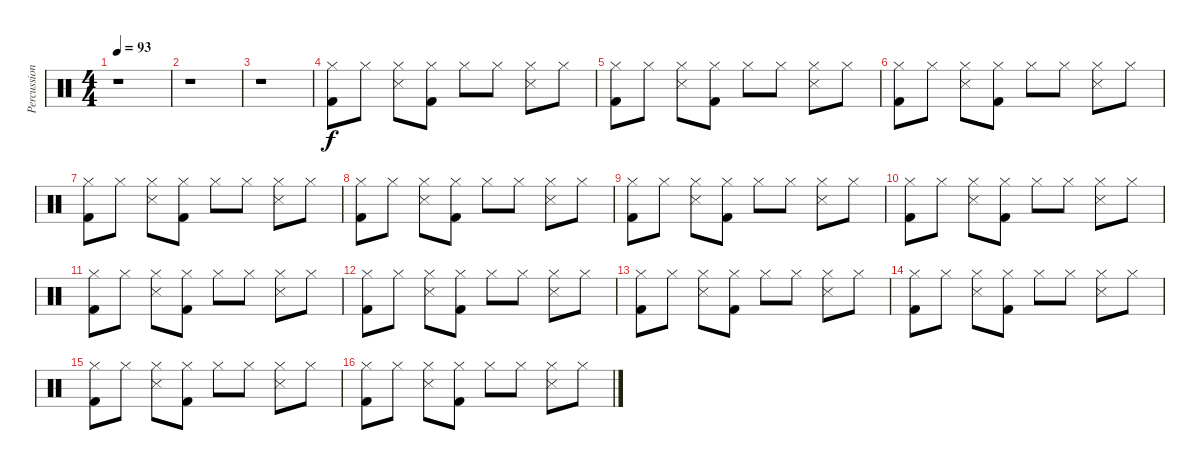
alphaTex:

\track ("Percussion" "Percussion") {instrument percussion}
\staff {score}
\articulation defaults
\ts (4 4)
\tempo 93
\clef neutral
\ks c
r.1{dy f} |
r.1 |
r.1 |
("Hi-Hat (closed)" "Kick (hit) 2").8 "Hi-Hat (closed)".8 ("Hi-Hat (closed)" "Snare (side stick) 3").8 ("Hi-Hat (closed)" "Kick (hit) 2").8 "Hi-Hat (closed)".8 "Hi-Hat (closed)".8 ("Hi-Hat (closed)" "Snare (side stick) 3").8 "Hi-Hat (closed)".8 |
("Hi-Hat (closed)" "Kick (hit) 2").8 "Hi-Hat (closed)".8 ("Hi-Hat (closed)" "Snare (side stick) 3").8 ("Hi-Hat (closed)" "Kick (hit) 2").8 "Hi-Hat (closed)".8 "Hi-Hat (closed)".8 ("Hi-Hat (closed)" "Snare (side stick) 3").8 "Hi-Hat (closed)".8 |
("Hi-Hat (closed)" "Kick (hit) 2").8 "Hi-Hat (closed)".8 ("Hi-Hat (closed)" "Snare (side stick) 3").8 ("Hi-Hat (closed)" "Kick (hit) 2").8 "Hi-Hat (closed)".8 "Hi-Hat (closed)".8 ("Hi-Hat (closed)" "Snare (side stick) 3").8 "Hi-Hat (closed)".8 |
("Hi-Hat (closed)" "Kick (hit) 2").8 "Hi-Hat (closed)".8 ("Hi-Hat (closed)" "Snare (side stick) 3").8 ("Hi-Hat (closed)" "Kick (hit) 2").8 "Hi-Hat (closed)".8 "Hi-Hat (closed)".8 ("Hi-Hat (closed)" "Snare (side stick) 3").8 "Hi-Hat (closed)".8 |
("Hi-Hat (closed)" "Kick (hit) 2").8 "Hi-Hat (closed)".8 ("Hi-Hat (closed)" "Snare (side stick) 3").8 ("Hi-Hat (closed)" "Kick (hit) 2").8 "Hi-Hat (closed)".8 "Hi-Hat (closed)".8 ("Hi-Hat (closed)" "Snare (side stick) 3").8 "Hi-Hat (closed)".8 |
("Hi-Hat (closed)" "Kick (hit) 2").8 "Hi-Hat (closed)".8 ("Hi-Hat (closed)" "Snare (side stick) 3").8 ("Hi-Hat (closed)" "Kick (hit) 2").8 "Hi-Hat (closed)".8 "Hi-Hat (closed)".8 ("Hi-Hat (closed)" "Snare (side stick) 3").8 "Hi-Hat (closed)".8 |
("Hi-Hat (closed)" "Kick (hit) 2").8 "Hi-Hat (closed)".8 ("Hi-Hat (closed)" "Snare (side stick) 3").8 ("Hi-Hat (closed)" "Kick (hit) 2").8 "Hi-Hat (closed)".8 "Hi-Hat (closed)".8 ("Hi-Hat (closed)" "Snare (side stick) 3").8 "Hi-Hat (closed)".8 |
("Hi-Hat (closed)" "Kick (hit) 2").8 "Hi-Hat (closed)".8 ("Hi-Hat (closed)" "Snare (side stick) 3").8 ("Hi-Hat (closed)" "Kick (hit) 2").8 "Hi-Hat (closed)".8 "Hi-Hat (closed)".8 ("Hi-Hat (closed)" "Snare (side stick) 3").8 "Hi-Hat (closed)".8 |
("Hi-Hat (closed)" "Kick (hit) 2").8 "Hi-Hat (closed)".8 ("Hi-Hat (closed)" "Snare (side stick) 3").8 ("Hi-Hat (closed)" "Kick (hit) 2").8 "Hi-Hat (closed)".8 "Hi-Hat (closed)".8 ("Hi-Hat (closed)" "Snare (side stick) 3").8 "Hi-Hat (closed)".8 |
("Hi-Hat (closed)" "Kick (hit) 2").8 "Hi-Hat (closed)".8 ("Hi-Hat (closed)" "Snare (side stick) 3").8 ("Hi-Hat (closed)" "Kick (hit) 2").8 "Hi-Hat (closed)".8 "Hi-Hat (closed)".8 ("Hi-Hat (closed)" "Snare (side stick) 3").8 "Hi-Hat (closed)".8 |
("Hi-Hat (closed)" "Kick (hit) 2").8 "Hi-Hat (closed)".8 ("Hi-Hat (closed)" "Snare (side stick) 3").8 ("Hi-Hat (closed)" "Kick (hit) 2").8 "Hi-Hat (closed)".8 "Hi-Hat (closed)".8 ("Hi-Hat (closed)" "Snare (side stick) 3").8 "Hi-Hat (closed)".8 |
("Hi-Hat (closed)" "Kick (hit) 2").8 "Hi-Hat (closed)".8 ("Hi-Hat (closed)" "Snare (side stick) 3").8 ("Hi-Hat (closed)" "Kick (hit) 2").8 "Hi-Hat (closed)".8 "Hi-Hat (closed)".8 ("Hi-Hat (closed)" "Snare (side stick) 3").8 "Hi-Hat (closed)".8 |
("Hi-Hat (closed)" "Kick (hit) 2").8 "Hi-Hat (closed)".8 ("Hi-Hat (closed)" "Snare (side stick) 3").8 ("Hi-Hat (closed)" "Kick (hit) 2").8 "Hi-Hat (closed)".8 "Hi-Hat (closed)".8 ("Hi-Hat (closed)" "Snare (side stick) 3").8 "Hi-Hat (closed)".8
